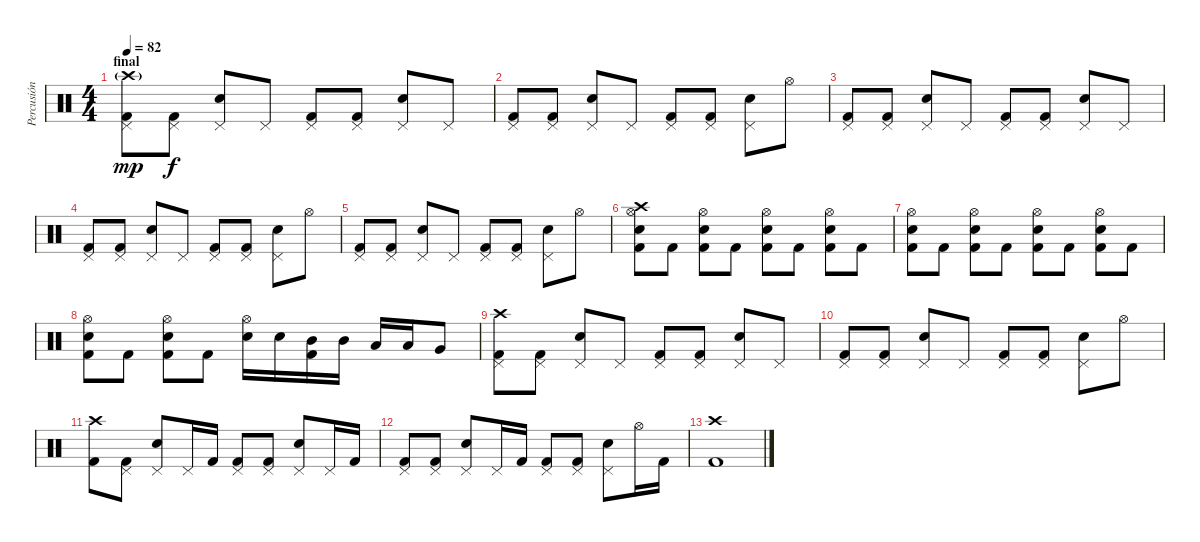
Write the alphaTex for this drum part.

\track ("Percusión" "Percusión") {instrument percussion}
\staff {score}
\articulation defaults
\ts (4 4)
\section ("" "final")
\tempo 82
\clef neutral
\ks c
("Crash high (hit)"{g} "Pedal Hi-Hat (hit)" "Kick (hit) 2").8{dy mp} ("Pedal Hi-Hat (hit)" "Kick (hit) 2").8{dy f} ("Pedal Hi-Hat (hit)" "Snare (hit) 2").8 "Pedal Hi-Hat (hit)".8 ("Pedal Hi-Hat (hit)" "Kick (hit) 2").8 ("Pedal Hi-Hat (hit)" "Kick (hit) 2").8 ("Pedal Hi-Hat (hit)" "Snare (hit) 2").8 "Pedal Hi-Hat (hit)".8 |
("Pedal Hi-Hat (hit)" "Kick (hit) 2").8 ("Pedal Hi-Hat (hit)" "Kick (hit) 2").8 ("Pedal Hi-Hat (hit)" "Snare (hit) 2").8 "Pedal Hi-Hat (hit)".8 ("Pedal Hi-Hat (hit)" "Kick (hit) 2").8 ("Pedal Hi-Hat (hit)" "Kick (hit) 2").8 ("Pedal Hi-Hat (hit)" "Snare (hit) 2").8 "Hi-Hat (open)".8 |
("Pedal Hi-Hat (hit)" "Kick (hit) 2").8 ("Pedal Hi-Hat (hit)" "Kick (hit) 2").8 ("Pedal Hi-Hat (hit)" "Snare (hit) 2").8 "Pedal Hi-Hat (hit)".8 ("Pedal Hi-Hat (hit)" "Kick (hit) 2").8 ("Pedal Hi-Hat (hit)" "Kick (hit) 2").8 ("Pedal Hi-Hat (hit)" "Snare (hit) 2").8 "Pedal Hi-Hat (hit)".8 |
("Pedal Hi-Hat (hit)" "Kick (hit) 2").8 ("Pedal Hi-Hat (hit)" "Kick (hit) 2").8 ("Pedal Hi-Hat (hit)" "Snare (hit) 2").8 "Pedal Hi-Hat (hit)".8 ("Pedal Hi-Hat (hit)" "Kick (hit) 2").8 ("Pedal Hi-Hat (hit)" "Kick (hit) 2").8 ("Pedal Hi-Hat (hit)" "Snare (hit) 2").8 "Hi-Hat (open)".8 |
("Pedal Hi-Hat (hit)" "Kick (hit) 2").8 ("Pedal Hi-Hat (hit)" "Kick (hit) 2").8 ("Pedal Hi-Hat (hit)" "Snare (hit) 2").8 "Pedal Hi-Hat (hit)".8 ("Pedal Hi-Hat (hit)" "Kick (hit) 2").8 ("Pedal Hi-Hat (hit)" "Kick (hit) 2").8 ("Pedal Hi-Hat (hit)" "Snare (hit) 2").8 "Hi-Hat (open)".8 |
("Crash high (hit)" "Hi-Hat (open)" "Snare (hit) 2" "Kick (hit) 2").8 "Kick (hit) 2".8 ("Hi-Hat (open)" "Snare (hit) 2" "Kick (hit) 2").8 "Kick (hit) 2".8 ("Hi-Hat (open)" "Snare (hit) 2" "Kick (hit) 2").8 "Kick (hit) 2".8 ("Hi-Hat (open)" "Snare (hit) 2" "Kick (hit) 2").8 "Kick (hit) 2".8 |
("Hi-Hat (open)" "Snare (hit) 2" "Kick (hit) 2").8 "Kick (hit) 2".8 ("Hi-Hat (open)" "Snare (hit) 2" "Kick (hit) 2").8 "Kick (hit) 2".8 ("Hi-Hat (open)" "Snare (hit) 2" "Kick (hit) 2").8 "Kick (hit) 2".8 ("Hi-Hat (open)" "Snare (hit) 2" "Kick (hit) 2").8 "Kick (hit) 2".8 |
("Hi-Hat (open)" "Snare (hit) 2" "Kick (hit) 2").8 "Kick (hit) 2".8 ("Hi-Hat (open)" "Snare (hit) 2" "Kick (hit) 2").8 "Kick (hit) 2".8 ("Hi-Hat (open)" "Snare (hit) 2").16 "Snare (hit) 2".16 ("Mid Tom (hit)" "Kick (hit) 2").16 "Mid Tom (hit)".16 "Low Tom (hit)".16 "Low Tom (hit)".16 "Very Low Tom (hit)".8 |
("Crash high (hit)" "Pedal Hi-Hat (hit)" "Kick (hit) 2").8 ("Pedal Hi-Hat (hit)" "Kick (hit) 2").8 ("Pedal Hi-Hat (hit)" "Snare (hit) 2").8 "Pedal Hi-Hat (hit)".8 ("Pedal Hi-Hat (hit)" "Kick (hit) 2").8 ("Pedal Hi-Hat (hit)" "Kick (hit) 2").8 ("Pedal Hi-Hat (hit)" "Snare (hit) 2").8 "Pedal Hi-Hat (hit)".8 |
("Pedal Hi-Hat (hit)" "Kick (hit) 2").8 ("Pedal Hi-Hat (hit)" "Kick (hit) 2").8 ("Pedal Hi-Hat (hit)" "Snare (hit) 2").8 "Pedal Hi-Hat (hit)".8 ("Pedal Hi-Hat (hit)" "Kick (hit) 2").8 ("Pedal Hi-Hat (hit)" "Kick (hit) 2").8 ("Pedal Hi-Hat (hit)" "Snare (hit) 2").8 "Hi-Hat (open)".8 |
("Crash high (hit)" "Kick (hit) 2").8 ("Pedal Hi-Hat (hit)" "Kick (hit) 2").8 ("Pedal Hi-Hat (hit)" "Snare (hit) 2").8 "Pedal Hi-Hat (hit)".16 "Kick (hit) 2".16 ("Pedal Hi-Hat (hit)" "Kick (hit) 2").8 ("Pedal Hi-Hat (hit)" "Kick (hit) 2").8 ("Pedal Hi-Hat (hit)" "Snare (hit) 2").8 "Pedal Hi-Hat (hit)".16 "Kick (hit) 2".16 |
("Pedal Hi-Hat (hit)" "Kick (hit) 2").8 ("Pedal Hi-Hat (hit)" "Kick (hit) 2").8 ("Pedal Hi-Hat (hit)" "Snare (hit) 2").8 "Pedal Hi-Hat (hit)".16 "Kick (hit) 2".16 ("Pedal Hi-Hat (hit)" "Kick (hit) 2").8 ("Pedal Hi-Hat (hit)" "Kick (hit) 2").8 ("Pedal Hi-Hat (hit)" "Snare (hit) 2").8 "Hi-Hat (open)".16 "Kick (hit) 2".16 |
("Crash high (hit)" "Kick (hit) 2").1
